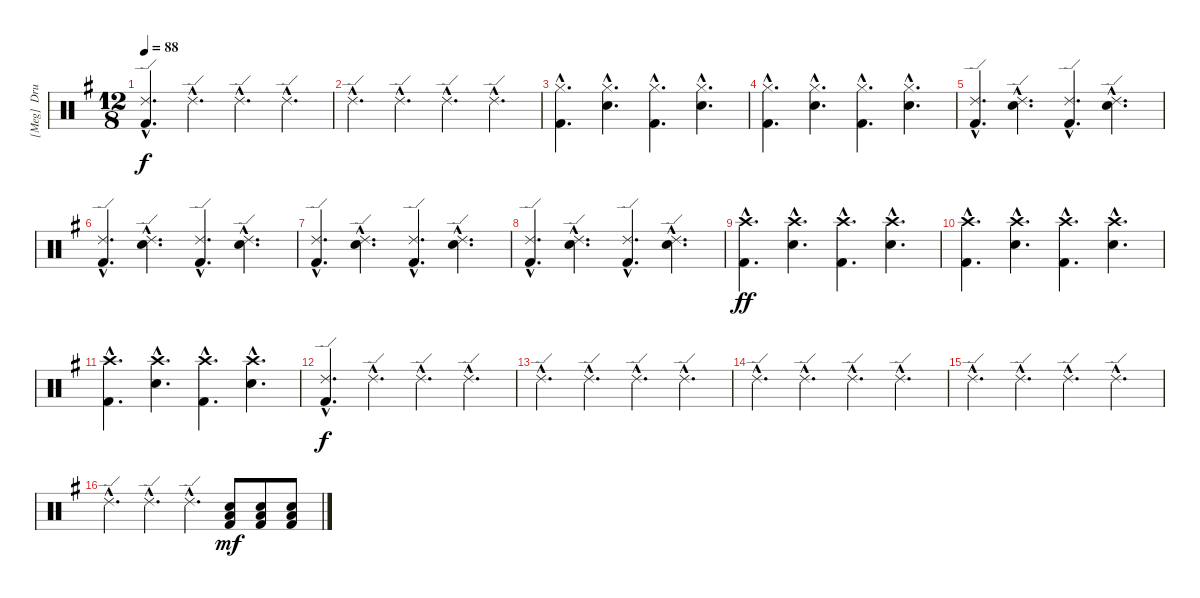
\track ("[Meg]  Drums" "[Meg]  Dru") {instrument percussion}
\staff {score}
\articulation defaults
\ts (12 8)
\tempo 88
\clef neutral
\ks g
("Ride (edge) 2"{hac} "Kick (hit) 2"{hac}).4{d dy f} "Ride (edge) 2"{hac}.4{d} "Ride (edge) 2"{hac}.4{d} "Ride (edge) 2"{hac}.4{d} |
"Ride (edge) 2"{hac}.4{d} "Ride (edge) 2"{hac}.4{d} "Ride (edge) 2"{hac}.4{d} "Ride (edge) 2"{hac}.4{d} |
("Hi-Hat (closed)"{hac} "Kick (hit) 2"{hac}).4{d} ("Hi-Hat (closed)"{hac} "Snare (hit) 2"{hac}).4{d} ("Hi-Hat (closed)"{hac} "Kick (hit) 2"{hac}).4{d} ("Hi-Hat (closed)"{hac} "Snare (hit) 2"{hac}).4{d} |
("Hi-Hat (closed)"{hac} "Kick (hit) 2"{hac}).4{d} ("Hi-Hat (closed)"{hac} "Snare (hit) 2"{hac}).4{d} ("Hi-Hat (closed)"{hac} "Kick (hit) 2"{hac}).4{d} ("Hi-Hat (closed)"{hac} "Snare (hit) 2"{hac}).4{d} |
("Ride (edge) 2"{hac} "Kick (hit) 2"{hac}).4{d} ("Ride (edge) 2"{hac} "Snare (hit) 2"{hac}).4{d} ("Ride (edge) 2"{hac} "Kick (hit) 2"{hac}).4{d} ("Ride (edge) 2"{hac} "Snare (hit) 2"{hac}).4{d} |
("Ride (edge) 2"{hac} "Kick (hit) 2"{hac}).4{d} ("Ride (edge) 2"{hac} "Snare (hit) 2"{hac}).4{d} ("Ride (edge) 2"{hac} "Kick (hit) 2"{hac}).4{d} ("Ride (edge) 2"{hac} "Snare (hit) 2"{hac}).4{d} |
("Ride (edge) 2"{hac} "Kick (hit) 2"{hac}).4{d} ("Ride (edge) 2"{hac} "Snare (hit) 2"{hac}).4{d} ("Ride (edge) 2"{hac} "Kick (hit) 2"{hac}).4{d} ("Ride (edge) 2"{hac} "Snare (hit) 2"{hac}).4{d} |
("Ride (edge) 2"{hac} "Kick (hit) 2"{hac}).4{d} ("Ride (edge) 2"{hac} "Snare (hit) 2"{hac}).4{d} ("Ride (edge) 2"{hac} "Kick (hit) 2"{hac}).4{d} ("Ride (edge) 2"{hac} "Snare (hit) 2"{hac}).4{d} |
("Crash high (hit)"{hac} "Kick (hit) 2"{hac}).4{d dy ff} ("Crash high (hit)"{hac} "Snare (hit) 2"{hac}).4{d} ("Crash high (hit)"{hac} "Kick (hit) 2"{hac}).4{d} ("Crash high (hit)"{hac} "Snare (hit) 2"{hac}).4{d} |
("Crash high (hit)"{hac} "Kick (hit) 2"{hac}).4{d} ("Crash high (hit)"{hac} "Snare (hit) 2"{hac}).4{d} ("Crash high (hit)"{hac} "Kick (hit) 2"{hac}).4{d} ("Crash high (hit)"{hac} "Snare (hit) 2"{hac}).4{d} |
("Crash high (hit)"{hac} "Kick (hit) 2"{hac}).4{d} ("Crash high (hit)"{hac} "Snare (hit) 2"{hac}).4{d} ("Crash high (hit)"{hac} "Kick (hit) 2"{hac}).4{d} ("Crash high (hit)"{hac} "Snare (hit) 2"{hac}).4{d} |
("Ride (edge) 2"{hac} "Kick (hit) 2"{hac}).4{d dy f} "Ride (edge) 2"{hac}.4{d} "Ride (edge) 2"{hac}.4{d} "Ride (edge) 2"{hac}.4{d} |
"Ride (edge) 2"{hac}.4{d} "Ride (edge) 2"{hac}.4{d} "Ride (edge) 2"{hac}.4{d} "Ride (edge) 2"{hac}.4{d} |
"Ride (edge) 2"{hac}.4{d} "Ride (edge) 2"{hac}.4{d} "Ride (edge) 2"{hac}.4{d} "Ride (edge) 2"{hac}.4{d} |
"Ride (edge) 2"{hac}.4{d} "Ride (edge) 2"{hac}.4{d} "Ride (edge) 2"{hac}.4{d} "Ride (edge) 2"{hac}.4{d} |
"Ride (edge) 2"{hac}.4{d} "Ride (edge) 2"{hac}.4{d} "Ride (edge) 2"{hac}.4{d} ("Snare (hit) 2" "Low Floor Tom (hit)" "Kick (hit) 2").8{dy mf} ("Snare (hit) 2" "Low Floor Tom (hit)" "Kick (hit) 2").8 ("Snare (hit) 2" "Low Floor Tom (hit)" "Kick (hit) 2").8
